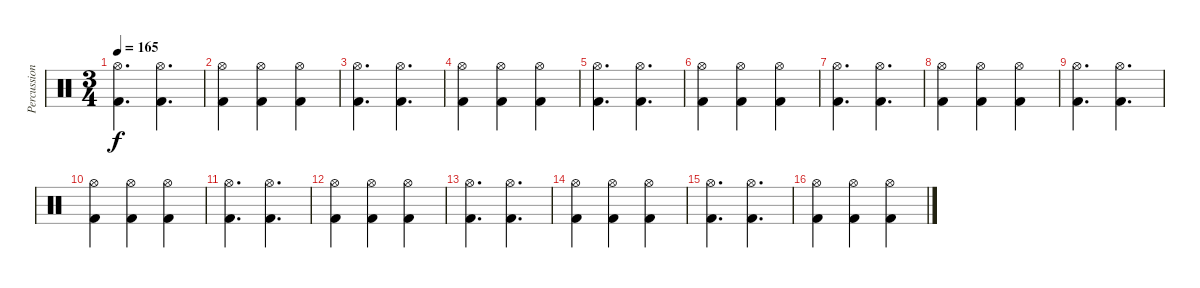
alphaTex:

\track ("Percussion" "Percussion") {instrument percussion}
\staff {score}
\articulation defaults
\ts (3 4)
\tempo 165
\clef neutral
\ks c
("Hi-Hat (open)" "Kick (hit) 2").4{d dy f} ("Hi-Hat (open)" "Kick (hit) 2").4{d} |
("Hi-Hat (open)" "Kick (hit) 2").4 ("Hi-Hat (open)" "Kick (hit) 2").4 ("Hi-Hat (open)" "Kick (hit) 2").4 |
("Hi-Hat (open)" "Kick (hit) 2").4{d} ("Hi-Hat (open)" "Kick (hit) 2").4{d} |
("Hi-Hat (open)" "Kick (hit) 2").4 ("Hi-Hat (open)" "Kick (hit) 2").4 ("Hi-Hat (open)" "Kick (hit) 2").4 |
("Hi-Hat (open)" "Kick (hit) 2").4{d} ("Hi-Hat (open)" "Kick (hit) 2").4{d} |
("Hi-Hat (open)" "Kick (hit) 2").4 ("Hi-Hat (open)" "Kick (hit) 2").4 ("Hi-Hat (open)" "Kick (hit) 2").4 |
("Hi-Hat (open)" "Kick (hit) 2").4{d} ("Hi-Hat (open)" "Kick (hit) 2").4{d} |
("Hi-Hat (open)" "Kick (hit) 2").4 ("Hi-Hat (open)" "Kick (hit) 2").4 ("Hi-Hat (open)" "Kick (hit) 2").4 |
("Hi-Hat (open)" "Kick (hit) 2").4{d} ("Hi-Hat (open)" "Kick (hit) 2").4{d} |
("Hi-Hat (open)" "Kick (hit) 2").4 ("Hi-Hat (open)" "Kick (hit) 2").4 ("Hi-Hat (open)" "Kick (hit) 2").4 |
("Hi-Hat (open)" "Kick (hit) 2").4{d} ("Hi-Hat (open)" "Kick (hit) 2").4{d} |
("Hi-Hat (open)" "Kick (hit) 2").4 ("Hi-Hat (open)" "Kick (hit) 2").4 ("Hi-Hat (open)" "Kick (hit) 2").4 |
("Hi-Hat (open)" "Kick (hit) 2").4{d} ("Hi-Hat (open)" "Kick (hit) 2").4{d} |
("Hi-Hat (open)" "Kick (hit) 2").4 ("Hi-Hat (open)" "Kick (hit) 2").4 ("Hi-Hat (open)" "Kick (hit) 2").4 |
("Hi-Hat (open)" "Kick (hit) 2").4{d} ("Hi-Hat (open)" "Kick (hit) 2").4{d} |
("Hi-Hat (open)" "Kick (hit) 2").4 ("Hi-Hat (open)" "Kick (hit) 2").4 ("Hi-Hat (open)" "Kick (hit) 2").4
